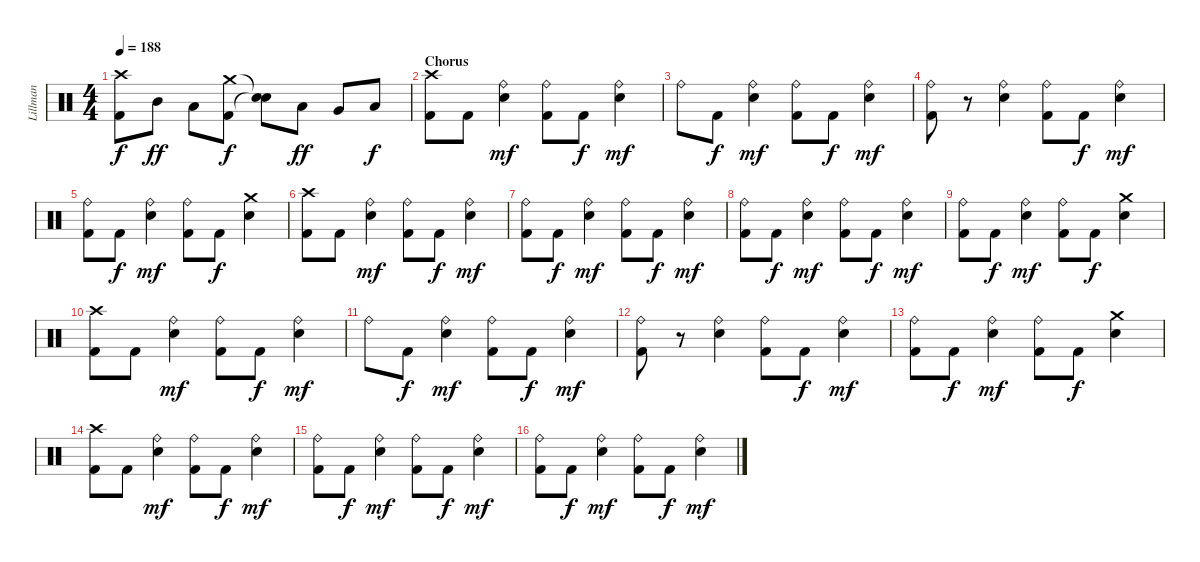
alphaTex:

\track ("Lillman" "Lillman") {instrument percussion}
\staff {score}
\articulation defaults
\ts (4 4)
\tempo 188
\clef neutral
\ks c
("Crash high (hit)" "Kick (hit) 2").8{dy f} "Mid Tom (hit)".8{dy ff} "Low Tom (hit)".8 ("Crash medium (hit)" "Kick (hit) 2").8{dy f} ("Snare (hit)"{t} "Snare (hit)"{t}).8 "Low Tom (hit)".8{dy ff} "Very Low Tom (hit)".8 "Low Floor Tom (hit)".8{dy f} |
\section ("" "Chorus")
("Crash high (hit)" "Kick (hit) 2").8 "Kick (hit) 2".8 ("Ride (bell)" "Snare (hit) 2").4{dy mf} ("Ride (bell)" "Kick (hit) 2").8 "Kick (hit) 2".8{dy f} ("Ride (bell)" "Snare (hit) 2").4{dy mf} |
"Ride (bell)".8 "Kick (hit) 2".8{dy f} ("Ride (bell)" "Snare (hit) 2").4{dy mf} ("Ride (bell)" "Kick (hit) 2").8 "Kick (hit) 2".8{dy f} ("Ride (bell)" "Snare (hit) 2").4{dy mf} |
("Ride (bell)" "Kick (hit) 2").8 r.8 ("Ride (bell)" "Snare (hit) 2").4 ("Ride (bell)" "Kick (hit) 2").8 "Kick (hit) 2".8{dy f} ("Ride (bell)" "Snare (hit) 2").4{dy mf} |
("Ride (bell)" "Kick (hit) 2").8 "Kick (hit) 2".8{dy f} ("Ride (bell)" "Snare (hit) 2").4{dy mf} ("Ride (bell)" "Kick (hit) 2").8 "Kick (hit) 2".8{dy f} ("Crash medium (hit)" "Snare (hit) 2").4 |
("Crash high (hit)" "Kick (hit) 2").8 "Kick (hit) 2".8 ("Ride (bell)" "Snare (hit) 2").4{dy mf} ("Ride (bell)" "Kick (hit) 2").8 "Kick (hit) 2".8{dy f} ("Ride (bell)" "Snare (hit) 2").4{dy mf} |
("Ride (bell)" "Kick (hit) 2").8 "Kick (hit) 2".8{dy f} ("Ride (bell)" "Snare (hit) 2").4{dy mf} ("Ride (bell)" "Kick (hit) 2").8 "Kick (hit) 2".8{dy f} ("Ride (bell)" "Snare (hit) 2").4{dy mf} |
("Ride (bell)" "Kick (hit) 2").8 "Kick (hit) 2".8{dy f} ("Ride (bell)" "Snare (hit) 2").4{dy mf} ("Ride (bell)" "Kick (hit) 2").8 "Kick (hit) 2".8{dy f} ("Ride (bell)" "Snare (hit) 2").4{dy mf} |
("Ride (bell)" "Kick (hit) 2").8 "Kick (hit) 2".8{dy f} ("Ride (bell)" "Snare (hit) 2").4{dy mf} ("Ride (bell)" "Kick (hit) 2").8 "Kick (hit) 2".8{dy f} ("Crash medium (hit)" "Snare (hit) 2").4 |
("Crash high (hit)" "Kick (hit) 2").8 "Kick (hit) 2".8 ("Ride (bell)" "Snare (hit) 2").4{dy mf} ("Ride (bell)" "Kick (hit) 2").8 "Kick (hit) 2".8{dy f} ("Ride (bell)" "Snare (hit) 2").4{dy mf} |
"Ride (bell)".8 "Kick (hit) 2".8{dy f} ("Ride (bell)" "Snare (hit) 2").4{dy mf} ("Ride (bell)" "Kick (hit) 2").8 "Kick (hit) 2".8{dy f} ("Ride (bell)" "Snare (hit) 2").4{dy mf} |
("Ride (bell)" "Kick (hit) 2").8 r.8 ("Ride (bell)" "Snare (hit) 2").4 ("Ride (bell)" "Kick (hit) 2").8 "Kick (hit) 2".8{dy f} ("Ride (bell)" "Snare (hit) 2").4{dy mf} |
("Ride (bell)" "Kick (hit) 2").8 "Kick (hit) 2".8{dy f} ("Ride (bell)" "Snare (hit) 2").4{dy mf} ("Ride (bell)" "Kick (hit) 2").8 "Kick (hit) 2".8{dy f} ("Crash medium (hit)" "Snare (hit) 2").4 |
("Crash high (hit)" "Kick (hit) 2").8 "Kick (hit) 2".8 ("Ride (bell)" "Snare (hit) 2").4{dy mf} ("Ride (bell)" "Kick (hit) 2").8 "Kick (hit) 2".8{dy f} ("Ride (bell)" "Snare (hit) 2").4{dy mf} |
("Ride (bell)" "Kick (hit) 2").8 "Kick (hit) 2".8{dy f} ("Ride (bell)" "Snare (hit) 2").4{dy mf} ("Ride (bell)" "Kick (hit) 2").8 "Kick (hit) 2".8{dy f} ("Ride (bell)" "Snare (hit) 2").4{dy mf} |
("Ride (bell)" "Kick (hit) 2").8 "Kick (hit) 2".8{dy f} ("Ride (bell)" "Snare (hit) 2").4{dy mf} ("Ride (bell)" "Kick (hit) 2").8 "Kick (hit) 2".8{dy f} ("Ride (bell)" "Snare (hit) 2").4{dy mf}
